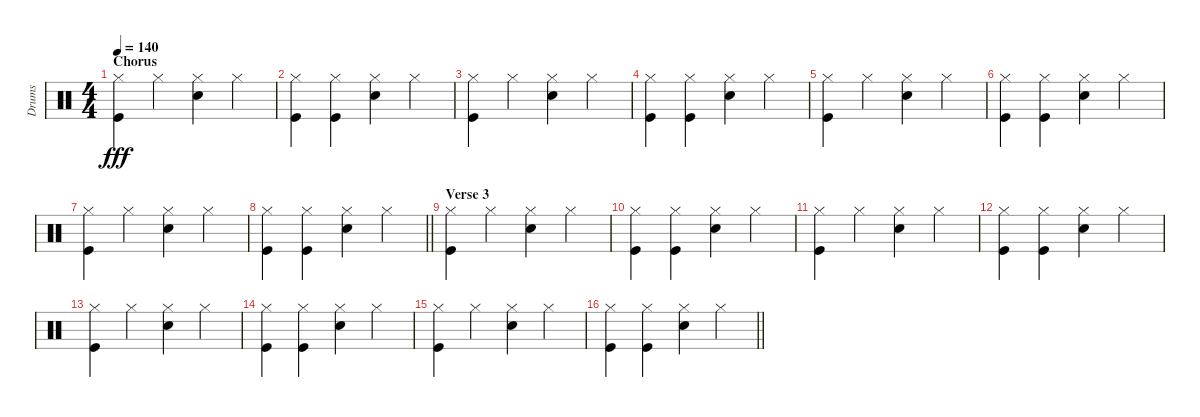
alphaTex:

\track ("Drums" "Drums") {instrument percussion}
\staff {score}
\articulation defaults
\ts (4 4)
\section ("" "Chorus")
\tempo 140
\clef neutral
\ks c
("Hi-Hat (closed)" "Kick (hit)").4{dy fff} "Hi-Hat (closed)".4 ("Hi-Hat (closed)" "Snare (hit) 2").4 "Hi-Hat (closed)".4 |
("Hi-Hat (closed)" "Kick (hit)").4 ("Hi-Hat (closed)" "Kick (hit)").4 ("Hi-Hat (closed)" "Snare (hit) 2").4 "Hi-Hat (closed)".4 |
("Hi-Hat (closed)" "Kick (hit)").4 "Hi-Hat (closed)".4 ("Hi-Hat (closed)" "Snare (hit) 2").4 "Hi-Hat (closed)".4 |
("Hi-Hat (closed)" "Kick (hit)").4 ("Hi-Hat (closed)" "Kick (hit)").4 ("Hi-Hat (closed)" "Snare (hit) 2").4 "Hi-Hat (closed)".4 |
("Hi-Hat (closed)" "Kick (hit)").4 "Hi-Hat (closed)".4 ("Hi-Hat (closed)" "Snare (hit) 2").4 "Hi-Hat (closed)".4 |
("Hi-Hat (closed)" "Kick (hit)").4 ("Hi-Hat (closed)" "Kick (hit)").4 ("Hi-Hat (closed)" "Snare (hit) 2").4 "Hi-Hat (closed)".4 |
("Hi-Hat (closed)" "Kick (hit)").4 "Hi-Hat (closed)".4 ("Hi-Hat (closed)" "Snare (hit) 2").4 "Hi-Hat (closed)".4 |
\barLineRight lightlight
("Hi-Hat (closed)" "Kick (hit)").4 ("Hi-Hat (closed)" "Kick (hit)").4 ("Hi-Hat (closed)" "Snare (hit) 2").4 "Hi-Hat (closed)".4 |
\section ("" "Verse 3")
("Hi-Hat (closed)" "Kick (hit)").4 "Hi-Hat (closed)".4 ("Hi-Hat (closed)" "Snare (hit) 2").4 "Hi-Hat (closed)".4 |
("Hi-Hat (closed)" "Kick (hit)").4 ("Hi-Hat (closed)" "Kick (hit)").4 ("Hi-Hat (closed)" "Snare (hit) 2").4 "Hi-Hat (closed)".4 |
("Hi-Hat (closed)" "Kick (hit)").4 "Hi-Hat (closed)".4 ("Hi-Hat (closed)" "Snare (hit) 2").4 "Hi-Hat (closed)".4 |
("Hi-Hat (closed)" "Kick (hit)").4 ("Hi-Hat (closed)" "Kick (hit)").4 ("Hi-Hat (closed)" "Snare (hit) 2").4 "Hi-Hat (closed)".4 |
("Hi-Hat (closed)" "Kick (hit)").4 "Hi-Hat (closed)".4 ("Hi-Hat (closed)" "Snare (hit) 2").4 "Hi-Hat (closed)".4 |
("Hi-Hat (closed)" "Kick (hit)").4 ("Hi-Hat (closed)" "Kick (hit)").4 ("Hi-Hat (closed)" "Snare (hit) 2").4 "Hi-Hat (closed)".4 |
("Hi-Hat (closed)" "Kick (hit)").4 "Hi-Hat (closed)".4 ("Hi-Hat (closed)" "Snare (hit) 2").4 "Hi-Hat (closed)".4 |
\barLineRight lightlight
("Hi-Hat (closed)" "Kick (hit)").4 ("Hi-Hat (closed)" "Kick (hit)").4 ("Hi-Hat (closed)" "Snare (hit) 2").4 "Hi-Hat (closed)".4
